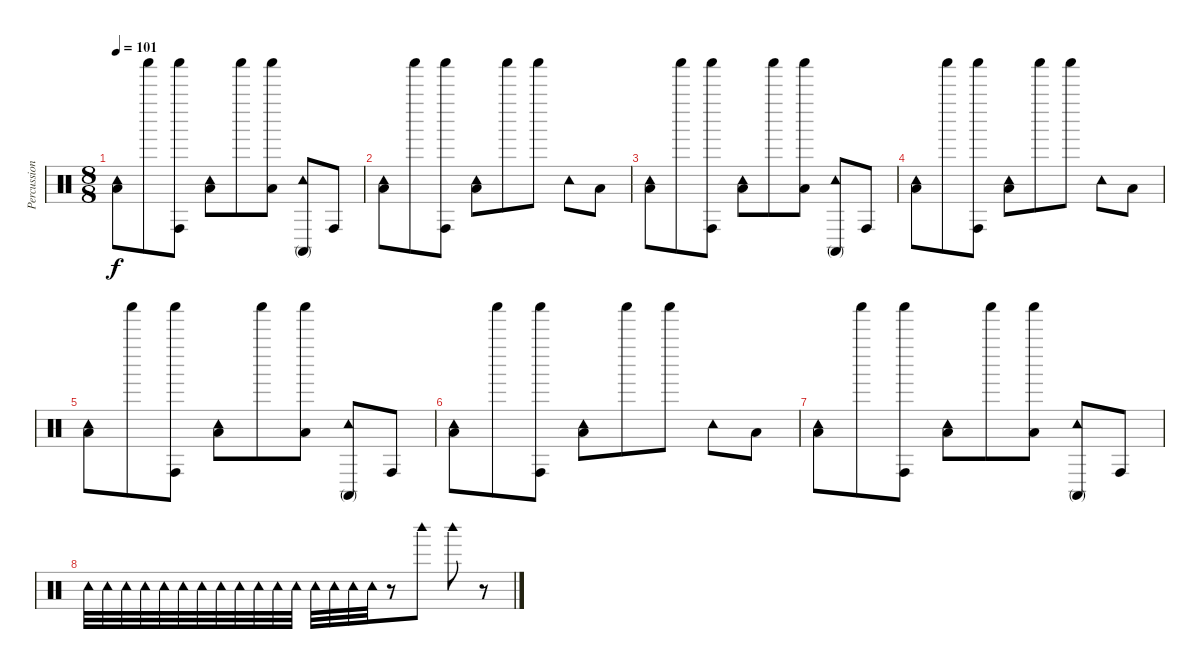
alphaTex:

\track ("Percussion" "Percussion") {instrument percussion}
\staff {score}
\articulation defaults
\ts (8 8)
\tempo 101
\clef neutral
\ks c
("Tambourine (hit)" "Low Floor Tom (hit)").8{dy f} "Shaker (hit)".8 ("Shaker (hit)" "Conga high (hit)").8 ("Tambourine (hit)" "Low Floor Tom (hit)").8 "Shaker (hit)".8 ("Shaker (hit)" "Low Floor Tom (hit)").8 ("Tambourine (hit)" "Conga high (mute)").8 "Conga high (hit)".8 |
("Tambourine (hit)" "Low Floor Tom (hit)").8 "Shaker (hit)".8 ("Shaker (hit)" "Conga high (hit)").8 ("Tambourine (hit)" "Low Floor Tom (hit)").8 "Shaker (hit)".8 "Shaker (hit)".8 "Tambourine (hit)".8 "Low Floor Tom (hit)".8 |
("Tambourine (hit)" "Low Floor Tom (hit)").8 "Shaker (hit)".8 ("Shaker (hit)" "Conga high (hit)").8 ("Tambourine (hit)" "Low Floor Tom (hit)").8 "Shaker (hit)".8 ("Shaker (hit)" "Low Floor Tom (hit)").8 ("Tambourine (hit)" "Conga high (mute)").8 "Conga high (hit)".8 |
("Tambourine (hit)" "Low Floor Tom (hit)").8 "Shaker (hit)".8 ("Shaker (hit)" "Conga high (hit)").8 ("Tambourine (hit)" "Low Floor Tom (hit)").8 "Shaker (hit)".8 "Shaker (hit)".8 "Tambourine (hit)".8 "Low Floor Tom (hit)".8 |
("Tambourine (hit)" "Low Floor Tom (hit)").8 "Shaker (hit)".8 ("Shaker (hit)" "Conga high (hit)").8 ("Tambourine (hit)" "Low Floor Tom (hit)").8 "Shaker (hit)".8 ("Shaker (hit)" "Low Floor Tom (hit)").8 ("Tambourine (hit)" "Conga high (mute)").8 "Conga high (hit)".8 |
("Tambourine (hit)" "Low Floor Tom (hit)").8 "Shaker (hit)".8 ("Shaker (hit)" "Conga high (hit)").8 ("Tambourine (hit)" "Low Floor Tom (hit)").8 "Shaker (hit)".8 "Shaker (hit)".8 "Tambourine (hit)".8 "Low Floor Tom (hit)".8 |
("Tambourine (hit)" "Low Floor Tom (hit)").8 "Shaker (hit)".8 ("Shaker (hit)" "Conga high (hit)").8 ("Tambourine (hit)" "Low Floor Tom (hit)").8 "Shaker (hit)".8 ("Shaker (hit)" "Low Floor Tom (hit)").8 ("Tambourine (hit)" "Conga high (mute)").8 "Conga high (hit)".8 |
"Tambourine (hit)".32 "Tambourine (hit)".32 "Tambourine (hit)".32 "Tambourine (hit)".32 "Tambourine (hit)".32 "Tambourine (hit)".32 "Tambourine (hit)".32 "Tambourine (hit)".32 "Tambourine (hit)".32 "Tambourine (hit)".32 "Tambourine (hit)".32 "Tambourine (hit)".32 "Tambourine (hit)".32 "Tambourine (hit)".32 "Tambourine (hit)".32 "Tambourine (hit)".32 r.8 "Woodblock high (hit)".8 "Woodblock high (hit)".8 r.8
